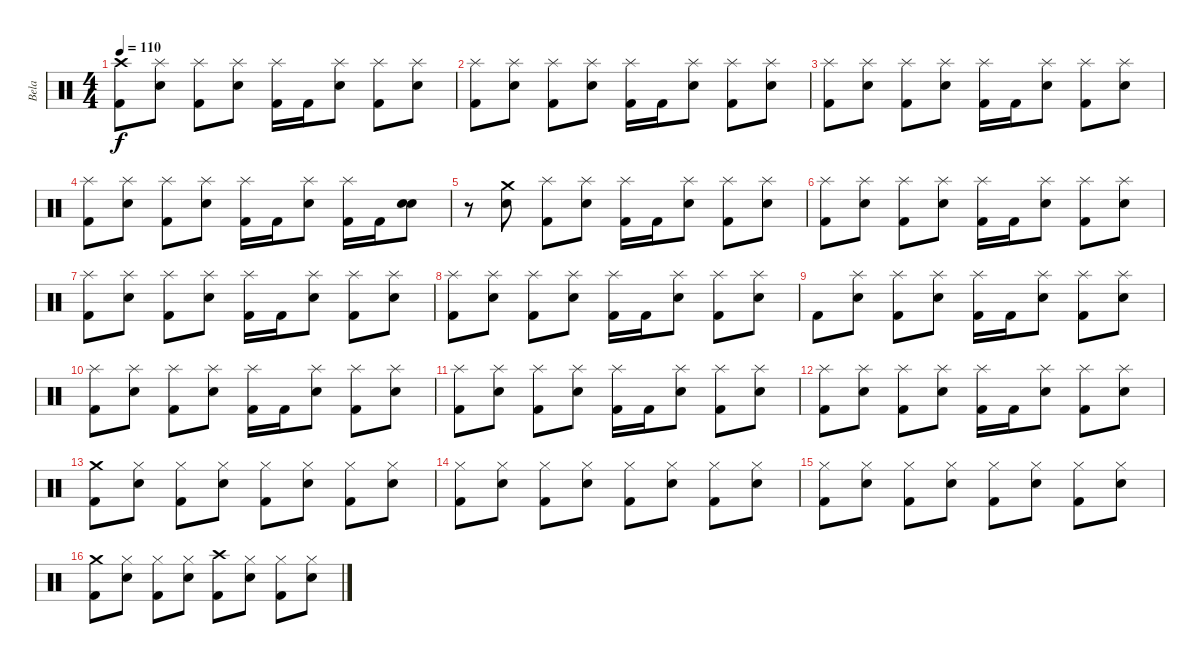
\track ("Bela " "Bela ") {instrument percussion}
\staff {score}
\articulation defaults
\ts (4 4)
\tempo 110
\clef neutral
\ks c
("Crash high (hit)" "Kick (hit) 2").8{dy f} ("Splash (hit)" "Electric Snare (hit)").8 ("Splash (hit)" "Kick (hit) 2").8 ("Splash (hit)" "Electric Snare (hit)").8 ("Splash (hit)" "Kick (hit) 2").16 "Kick (hit) 2".16 ("Splash (hit)" "Electric Snare (hit)").8 ("Splash (hit)" "Kick (hit) 2").8 ("Splash (hit)" "Electric Snare (hit)").8 |
("Splash (hit)" "Kick (hit) 2").8 ("Splash (hit)" "Electric Snare (hit)").8 ("Splash (hit)" "Kick (hit) 2").8 ("Splash (hit)" "Electric Snare (hit)").8 ("Splash (hit)" "Kick (hit) 2").16 "Kick (hit) 2".16 ("Splash (hit)" "Electric Snare (hit)").8 ("Splash (hit)" "Kick (hit) 2").8 ("Splash (hit)" "Electric Snare (hit)").8 |
("Splash (hit)" "Kick (hit) 2").8 ("Splash (hit)" "Electric Snare (hit)").8 ("Splash (hit)" "Kick (hit) 2").8 ("Splash (hit)" "Electric Snare (hit)").8 ("Splash (hit)" "Kick (hit) 2").16 "Kick (hit) 2".16 ("Splash (hit)" "Electric Snare (hit)").8 ("Splash (hit)" "Kick (hit) 2").8 ("Splash (hit)" "Electric Snare (hit)").8 |
("Splash (hit)" "Kick (hit) 2").8 ("Splash (hit)" "Electric Snare (hit)").8 ("Splash (hit)" "Kick (hit) 2").8 ("Splash (hit)" "Electric Snare (hit)").8 ("Splash (hit)" "Kick (hit) 2").16 "Kick (hit) 2".16 ("Splash (hit)" "Electric Snare (hit)").8 ("Splash (hit)" "Kick (hit) 2").16 "Kick (hit) 2".16 ("Electric Snare (hit)" "Electric Snare (hit)").8 |
r.8 ("Crash medium (hit)" "Electric Snare (hit)").8 ("Splash (hit)" "Kick (hit) 2").8 ("Splash (hit)" "Electric Snare (hit)").8 ("Splash (hit)" "Kick (hit) 2").16 "Kick (hit) 2".16 ("Splash (hit)" "Electric Snare (hit)").8 ("Splash (hit)" "Kick (hit) 2").8 ("Splash (hit)" "Electric Snare (hit)").8 |
("Splash (hit)" "Kick (hit) 2").8 ("Splash (hit)" "Electric Snare (hit)").8 ("Splash (hit)" "Kick (hit) 2").8 ("Splash (hit)" "Electric Snare (hit)").8 ("Splash (hit)" "Kick (hit) 2").16 "Kick (hit) 2".16 ("Splash (hit)" "Electric Snare (hit)").8 ("Splash (hit)" "Kick (hit) 2").8 ("Splash (hit)" "Electric Snare (hit)").8 |
("Splash (hit)" "Kick (hit) 2").8 ("Splash (hit)" "Electric Snare (hit)").8 ("Splash (hit)" "Kick (hit) 2").8 ("Splash (hit)" "Electric Snare (hit)").8 ("Splash (hit)" "Kick (hit) 2").16 "Kick (hit) 2".16 ("Splash (hit)" "Electric Snare (hit)").8 ("Splash (hit)" "Kick (hit) 2").8 ("Splash (hit)" "Electric Snare (hit)").8 |
("Splash (hit)" "Kick (hit) 2").8 ("Splash (hit)" "Electric Snare (hit)").8 ("Splash (hit)" "Kick (hit) 2").8 ("Splash (hit)" "Electric Snare (hit)").8 ("Splash (hit)" "Kick (hit) 2").16 "Kick (hit) 2".16 ("Splash (hit)" "Electric Snare (hit)").8 ("Splash (hit)" "Kick (hit) 2").8 ("Splash (hit)" "Electric Snare (hit)").8 |
"Kick (hit) 2".8 ("Splash (hit)" "Electric Snare (hit)").8 ("Splash (hit)" "Kick (hit) 2").8 ("Splash (hit)" "Electric Snare (hit)").8 ("Splash (hit)" "Kick (hit) 2").16 "Kick (hit) 2".16 ("Splash (hit)" "Electric Snare (hit)").8 ("Splash (hit)" "Kick (hit) 2").8 ("Splash (hit)" "Electric Snare (hit)").8 |
("Splash (hit)" "Kick (hit) 2").8 ("Splash (hit)" "Electric Snare (hit)").8 ("Splash (hit)" "Kick (hit) 2").8 ("Splash (hit)" "Electric Snare (hit)").8 ("Splash (hit)" "Kick (hit) 2").16 "Kick (hit) 2".16 ("Splash (hit)" "Electric Snare (hit)").8 ("Splash (hit)" "Kick (hit) 2").8 ("Splash (hit)" "Electric Snare (hit)").8 |
("Splash (hit)" "Kick (hit) 2").8 ("Splash (hit)" "Electric Snare (hit)").8 ("Splash (hit)" "Kick (hit) 2").8 ("Splash (hit)" "Electric Snare (hit)").8 ("Splash (hit)" "Kick (hit) 2").16 "Kick (hit) 2".16 ("Splash (hit)" "Electric Snare (hit)").8 ("Splash (hit)" "Kick (hit) 2").8 ("Splash (hit)" "Electric Snare (hit)").8 |
("Splash (hit)" "Kick (hit) 2").8 ("Splash (hit)" "Electric Snare (hit)").8 ("Splash (hit)" "Kick (hit) 2").8 ("Splash (hit)" "Electric Snare (hit)").8 ("Splash (hit)" "Kick (hit) 2").16 "Kick (hit) 2".16 ("Splash (hit)" "Electric Snare (hit)").8 ("Splash (hit)" "Kick (hit) 2").8 ("Splash (hit)" "Electric Snare (hit)").8 |
("Crash medium (hit)" "Kick (hit) 2").8 ("Hi-Hat (closed)" "Electric Snare (hit)").8 ("Hi-Hat (closed)" "Kick (hit) 2").8 ("Hi-Hat (closed)" "Electric Snare (hit)").8 ("Hi-Hat (closed)" "Kick (hit) 2").8 ("Hi-Hat (closed)" "Electric Snare (hit)").8 ("Hi-Hat (closed)" "Kick (hit) 2").8 ("Hi-Hat (closed)" "Electric Snare (hit)").8 |
("Hi-Hat (closed)" "Kick (hit) 2").8 ("Hi-Hat (closed)" "Electric Snare (hit)").8 ("Hi-Hat (closed)" "Kick (hit) 2").8 ("Hi-Hat (closed)" "Electric Snare (hit)").8 ("Hi-Hat (closed)" "Kick (hit) 2").8 ("Hi-Hat (closed)" "Electric Snare (hit)").8 ("Hi-Hat (closed)" "Kick (hit) 2").8 ("Hi-Hat (closed)" "Electric Snare (hit)").8 |
("Hi-Hat (closed)" "Kick (hit) 2").8 ("Hi-Hat (closed)" "Electric Snare (hit)").8 ("Hi-Hat (closed)" "Kick (hit) 2").8 ("Hi-Hat (closed)" "Electric Snare (hit)").8 ("Hi-Hat (closed)" "Kick (hit) 2").8 ("Hi-Hat (closed)" "Electric Snare (hit)").8 ("Hi-Hat (closed)" "Kick (hit) 2").8 ("Hi-Hat (closed)" "Electric Snare (hit)").8 |
("Crash medium (hit)" "Kick (hit) 2").8 ("Hi-Hat (closed)" "Electric Snare (hit)").8 ("Hi-Hat (closed)" "Kick (hit) 2").8 ("Hi-Hat (closed)" "Electric Snare (hit)").8 ("Crash high (hit)" "Kick (hit) 2").8 ("Hi-Hat (closed)" "Electric Snare (hit)").8 ("Hi-Hat (closed)" "Kick (hit) 2").8 ("Hi-Hat (closed)" "Electric Snare (hit)").8
